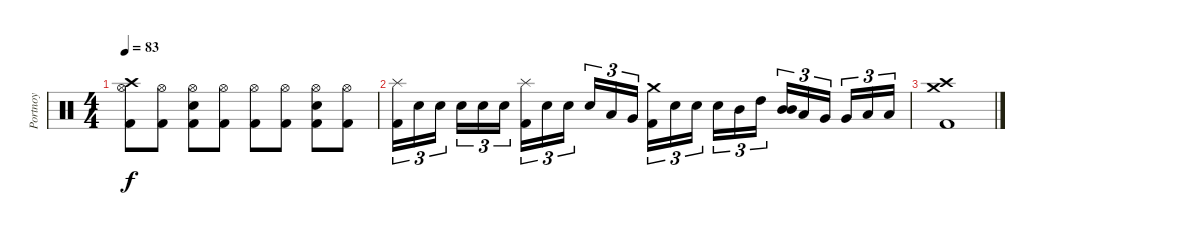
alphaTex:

\track ("Portnoy" "Portnoy") {instrument percussion}
\staff {score}
\articulation defaults
\ts (4 4)
\tempo 83
\clef neutral
\ks c
("Hi-Hat (open)" "Crash high (hit)" "Kick (hit) 2").8{dy f} ("Hi-Hat (open)" "Kick (hit) 2").8 ("Hi-Hat (open)" "Electric Snare (hit)" "Kick (hit) 2").8 ("Hi-Hat (open)" "Kick (hit) 2").8 ("Hi-Hat (open)" "Kick (hit) 2").8 ("Hi-Hat (open)" "Kick (hit) 2").8 ("Hi-Hat (open)" "Electric Snare (hit)" "Kick (hit) 2").8 ("Hi-Hat (open)" "Kick (hit) 2").8 |
("Splash (hit)" "Kick (hit) 2").16{tu (3 2)} "Electric Snare (hit)".16{tu (3 2)} "Electric Snare (hit)".16{tu (3 2)} "Electric Snare (hit)".16{tu (3 2)} "Electric Snare (hit)".16{tu (3 2)} "Electric Snare (hit)".16{tu (3 2)} ("Splash (hit)" "Kick (hit) 2").16{tu (3 2)} "Electric Snare (hit)".16{tu (3 2)} "Electric Snare (hit)".16{tu (3 2)} "Electric Snare (hit)".16{tu (3 2)} "Low Tom (hit)".16{tu (3 2)} "Very Low Tom (hit)".16{tu (3 2)} ("Crash medium (hit)" "Kick (hit) 2").16{tu (3 2)} "Electric Snare (hit)".16{tu (3 2)} "Electric Snare (hit)".16{tu (3 2)} "Electric Snare (hit)".16{tu (3 2)} "Mid Tom (hit)".16{tu (3 2)} "High Tom (hit)".16{tu (3 2)} ("Mid Tom (hit)" "Mid Tom (hit)").16{tu (3 2)} "Low Tom (hit)".16{tu (3 2)} "Very Low Tom (hit)".16{tu (3 2)} "Very Low Tom (hit)".16{tu (3 2)} "Low Floor Tom (hit)".16{tu (3 2)} "Low Floor Tom (hit)".16{tu (3 2)} |
("Crash high (hit)" "Crash medium (hit)" "Kick (hit) 2").1
